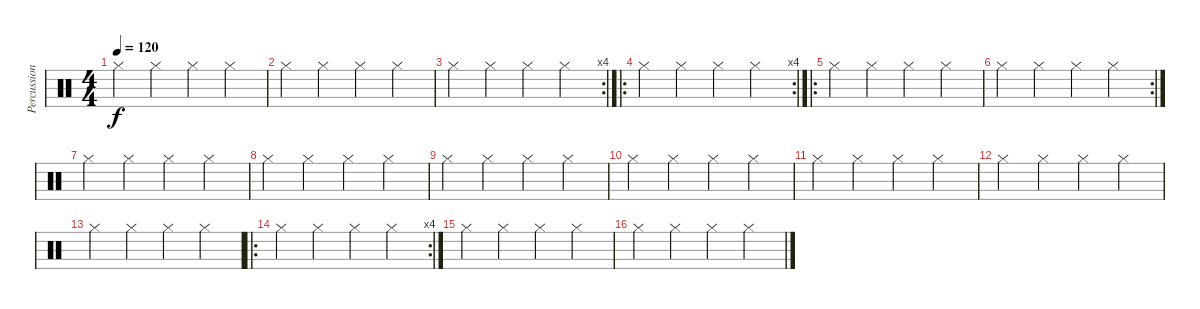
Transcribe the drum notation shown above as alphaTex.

\track ("Percussioni" "Percussion") {instrument percussion}
\staff {score}
\articulation defaults
\ts (4 4)
\tempo 120
\clef neutral
\ks c "Hi-Hat (closed)".4{dy f} "Hi-Hat (closed)".4 "Hi-Hat (closed)".4 "Hi-Hat (closed)".4
|
"Hi-Hat (closed)".4 "Hi-Hat (closed)".4 "Hi-Hat (closed)".4 "Hi-Hat (closed)".4 |
\rc 4 "Hi-Hat (closed)".4 "Hi-Hat (closed)".4 "Hi-Hat (closed)".4 "Hi-Hat (closed)".4
|
\ro
\rc 4 "Hi-Hat (closed)".4 "Hi-Hat (closed)".4 "Hi-Hat (closed)".4 "Hi-Hat (closed)".4
|
\ro "Hi-Hat (closed)".4 "Hi-Hat (closed)".4 "Hi-Hat (closed)".4 "Hi-Hat (closed)".4
|
\rc 2 "Hi-Hat (closed)".4 "Hi-Hat (closed)".4 "Hi-Hat (closed)".4 "Hi-Hat (closed)".4
|
"Hi-Hat (closed)".4 "Hi-Hat (closed)".4 "Hi-Hat (closed)".4 "Hi-Hat (closed)".4 |
"Hi-Hat (closed)".4 "Hi-Hat (closed)".4 "Hi-Hat (closed)".4 "Hi-Hat (closed)".4 |
"Hi-Hat (closed)".4 "Hi-Hat (closed)".4 "Hi-Hat (closed)".4 "Hi-Hat (closed)".4 |
"Hi-Hat (closed)".4 "Hi-Hat (closed)".4 "Hi-Hat (closed)".4 "Hi-Hat (closed)".4 |
"Hi-Hat (closed)".4 "Hi-Hat (closed)".4 "Hi-Hat (closed)".4 "Hi-Hat (closed)".4 |
"Hi-Hat (closed)".4 "Hi-Hat (closed)".4 "Hi-Hat (closed)".4 "Hi-Hat (closed)".4 |
"Hi-Hat (closed)".4 "Hi-Hat (closed)".4 "Hi-Hat (closed)".4 "Hi-Hat (closed)".4 |
\ro
\rc 4 "Hi-Hat (closed)".4 "Hi-Hat (closed)".4 "Hi-Hat (closed)".4 "Hi-Hat (closed)".4
|
"Hi-Hat (closed)".4 "Hi-Hat (closed)".4 "Hi-Hat (closed)".4 "Hi-Hat (closed)".4 |
"Hi-Hat (closed)".4 "Hi-Hat (closed)".4 "Hi-Hat (closed)".4 "Hi-Hat (closed)".4
